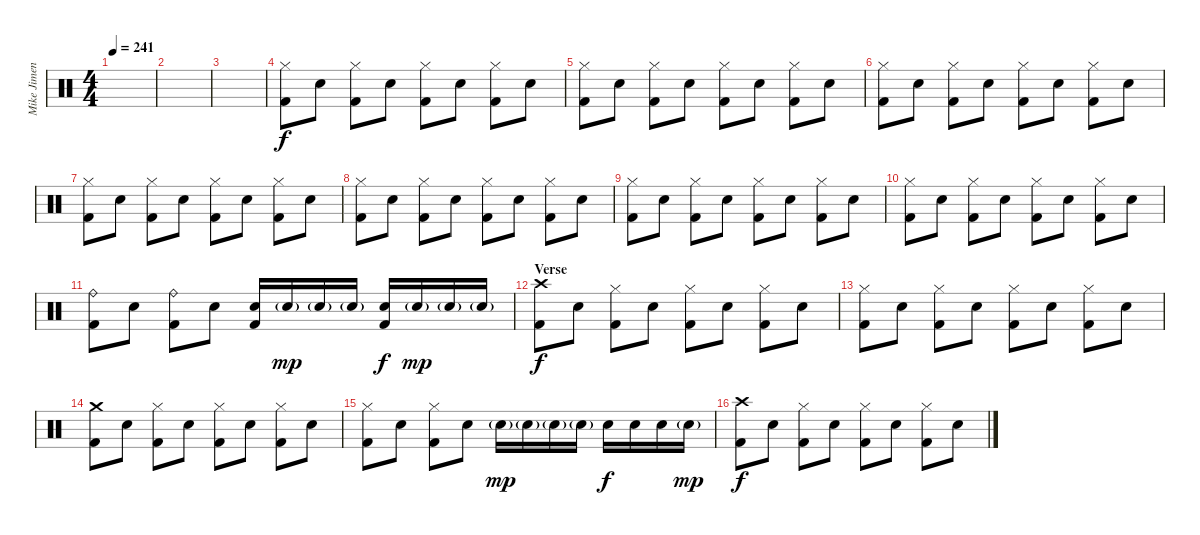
\track ("Mike Jimenez" "Mike Jimen") {instrument percussion}
\staff {score}
\articulation defaults
\ts (4 4)
\tempo 241
\clef neutral
\ks c
|
|
|
("Hi-Hat (closed)" "Kick (hit) 2").8 "Electric Snare (hit)".8 ("Hi-Hat (closed)" "Kick (hit) 2").8 "Electric Snare (hit)".8 ("Hi-Hat (closed)" "Kick (hit) 2").8 "Electric Snare (hit)".8 ("Hi-Hat (closed)" "Kick (hit) 2").8 "Electric Snare (hit)".8 |
("Hi-Hat (closed)" "Kick (hit) 2").8 "Electric Snare (hit)".8 ("Hi-Hat (closed)" "Kick (hit) 2").8 "Electric Snare (hit)".8 ("Hi-Hat (closed)" "Kick (hit) 2").8 "Electric Snare (hit)".8 ("Hi-Hat (closed)" "Kick (hit) 2").8 "Electric Snare (hit)".8 |
("Hi-Hat (closed)" "Kick (hit) 2").8 "Electric Snare (hit)".8 ("Hi-Hat (closed)" "Kick (hit) 2").8 "Electric Snare (hit)".8 ("Hi-Hat (closed)" "Kick (hit) 2").8 "Electric Snare (hit)".8 ("Hi-Hat (closed)" "Kick (hit) 2").8 "Electric Snare (hit)".8 |
("Hi-Hat (closed)" "Kick (hit) 2").8 "Electric Snare (hit)".8 ("Hi-Hat (closed)" "Kick (hit) 2").8 "Electric Snare (hit)".8 ("Hi-Hat (closed)" "Kick (hit) 2").8 "Electric Snare (hit)".8 ("Hi-Hat (closed)" "Kick (hit) 2").8 "Electric Snare (hit)".8 |
("Hi-Hat (closed)" "Kick (hit) 2").8 "Electric Snare (hit)".8 ("Hi-Hat (closed)" "Kick (hit) 2").8 "Electric Snare (hit)".8 ("Hi-Hat (closed)" "Kick (hit) 2").8 "Electric Snare (hit)".8 ("Hi-Hat (closed)" "Kick (hit) 2").8 "Electric Snare (hit)".8 |
("Hi-Hat (closed)" "Kick (hit) 2").8 "Electric Snare (hit)".8 ("Hi-Hat (closed)" "Kick (hit) 2").8 "Electric Snare (hit)".8 ("Hi-Hat (closed)" "Kick (hit) 2").8 "Electric Snare (hit)".8 ("Hi-Hat (closed)" "Kick (hit) 2").8 "Electric Snare (hit)".8 |
("Hi-Hat (closed)" "Kick (hit) 2").8 "Electric Snare (hit)".8 ("Hi-Hat (closed)" "Kick (hit) 2").8 "Electric Snare (hit)".8 ("Hi-Hat (closed)" "Kick (hit) 2").8 "Electric Snare (hit)".8 ("Hi-Hat (closed)" "Kick (hit) 2").8 "Electric Snare (hit)".8 |
("Ride (bell)" "Kick (hit) 2").8 "Electric Snare (hit)".8 ("Ride (bell)" "Kick (hit) 2").8 "Electric Snare (hit)".8 ("Electric Snare (hit)" "Kick (hit) 2").16 "Electric Snare (hit)"{g}.16{dy mp} "Electric Snare (hit)"{g}.16 "Electric Snare (hit)"{g}.16 ("Electric Snare (hit)" "Kick (hit) 2").16{dy f} "Electric Snare (hit)"{g}.16{dy mp} "Electric Snare (hit)"{g}.16 "Electric Snare (hit)"{g}.16 |
\section ("" "Verse")
("Crash high (hit)" "Kick (hit) 2").8{dy f} "Electric Snare (hit)".8 ("Hi-Hat (closed)" "Kick (hit) 2").8 "Electric Snare (hit)".8 ("Hi-Hat (closed)" "Kick (hit) 2").8 "Electric Snare (hit)".8 ("Hi-Hat (closed)" "Kick (hit) 2").8 "Electric Snare (hit)".8 |
("Hi-Hat (closed)" "Kick (hit) 2").8 "Electric Snare (hit)".8 ("Hi-Hat (closed)" "Kick (hit) 2").8 "Electric Snare (hit)".8 ("Hi-Hat (closed)" "Kick (hit) 2").8 "Electric Snare (hit)".8 ("Hi-Hat (closed)" "Kick (hit) 2").8 "Electric Snare (hit)".8 |
("Crash medium (hit)" "Kick (hit) 2").8 "Electric Snare (hit)".8 ("Hi-Hat (closed)" "Kick (hit) 2").8 "Electric Snare (hit)".8 ("Hi-Hat (closed)" "Kick (hit) 2").8 "Electric Snare (hit)".8 ("Hi-Hat (closed)" "Kick (hit) 2").8 "Electric Snare (hit)".8 |
("Hi-Hat (closed)" "Kick (hit) 2").8 "Electric Snare (hit)".8 ("Hi-Hat (closed)" "Kick (hit) 2").8 "Electric Snare (hit)".8 "Electric Snare (hit)"{g}.16{dy mp} "Electric Snare (hit)"{g}.16 "Electric Snare (hit)"{g}.16 "Electric Snare (hit)"{g}.16 "Electric Snare (hit)".16{dy f} "Electric Snare (hit)".16 "Electric Snare (hit)".16 "Electric Snare (hit)"{g}.16{dy mp} |
("Crash high (hit)" "Kick (hit) 2").8{dy f} "Electric Snare (hit)".8 ("Hi-Hat (closed)" "Kick (hit) 2").8 "Electric Snare (hit)".8 ("Hi-Hat (closed)" "Kick (hit) 2").8 "Electric Snare (hit)".8 ("Hi-Hat (closed)" "Kick (hit) 2").8 "Electric Snare (hit)".8
